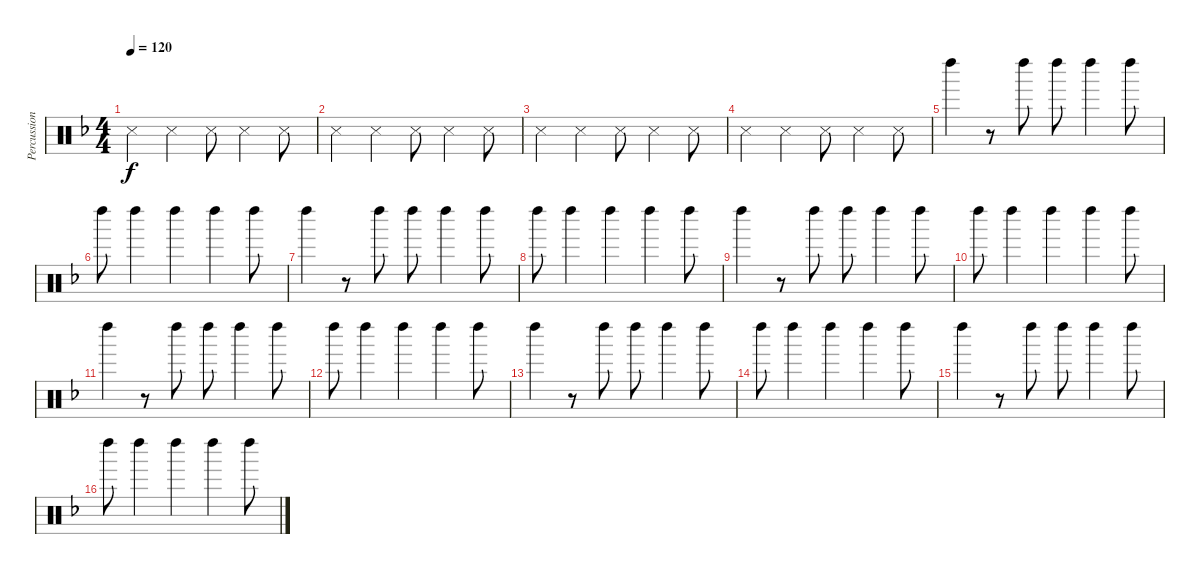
\track ("Percussion" "Percussion") {instrument percussion}
\staff {score}
\articulation defaults
\ts (4 4)
\tempo 120
\clef neutral
\ks f "Snare (side stick) 3".4{dy f} "Snare (side stick) 3".4 "Snare (side stick) 3".8 "Snare (side stick) 3".4 "Snare (side stick) 3".8
|
"Snare (side stick) 3".4 "Snare (side stick) 3".4 "Snare (side stick) 3".8 "Snare (side stick) 3".4 "Snare (side stick) 3".8 |
"Snare (side stick) 3".4 "Snare (side stick) 3".4 "Snare (side stick) 3".8 "Snare (side stick) 3".4 "Snare (side stick) 3".8 |
"Snare (side stick) 3".4 "Snare (side stick) 3".4 "Snare (side stick) 3".8 "Snare (side stick) 3".4 "Snare (side stick) 3".8 |
"Left Maraca (hit)".4 r.8 "Left Maraca (hit)".8 "Left Maraca (hit)".8 "Left Maraca (hit)".4 "Left Maraca (hit)".8 |
"Left Maraca (hit)".8 "Left Maraca (hit)".4 "Left Maraca (hit)".4 "Left Maraca (hit)".4 "Left Maraca (hit)".8 |
"Left Maraca (hit)".4 r.8 "Left Maraca (hit)".8 "Left Maraca (hit)".8 "Left Maraca (hit)".4 "Left Maraca (hit)".8 |
"Left Maraca (hit)".8 "Left Maraca (hit)".4 "Left Maraca (hit)".4 "Left Maraca (hit)".4 "Left Maraca (hit)".8 |
"Left Maraca (hit)".4 r.8 "Left Maraca (hit)".8 "Left Maraca (hit)".8 "Left Maraca (hit)".4 "Left Maraca (hit)".8 |
"Left Maraca (hit)".8 "Left Maraca (hit)".4 "Left Maraca (hit)".4 "Left Maraca (hit)".4 "Left Maraca (hit)".8 |
"Left Maraca (hit)".4 r.8 "Left Maraca (hit)".8 "Left Maraca (hit)".8 "Left Maraca (hit)".4 "Left Maraca (hit)".8 |
"Left Maraca (hit)".8 "Left Maraca (hit)".4 "Left Maraca (hit)".4 "Left Maraca (hit)".4 "Left Maraca (hit)".8 |
"Left Maraca (hit)".4 r.8 "Left Maraca (hit)".8 "Left Maraca (hit)".8 "Left Maraca (hit)".4 "Left Maraca (hit)".8 |
"Left Maraca (hit)".8 "Left Maraca (hit)".4 "Left Maraca (hit)".4 "Left Maraca (hit)".4 "Left Maraca (hit)".8 |
"Left Maraca (hit)".4 r.8 "Left Maraca (hit)".8 "Left Maraca (hit)".8 "Left Maraca (hit)".4 "Left Maraca (hit)".8 |
"Left Maraca (hit)".8 "Left Maraca (hit)".4 "Left Maraca (hit)".4 "Left Maraca (hit)".4 "Left Maraca (hit)".8
